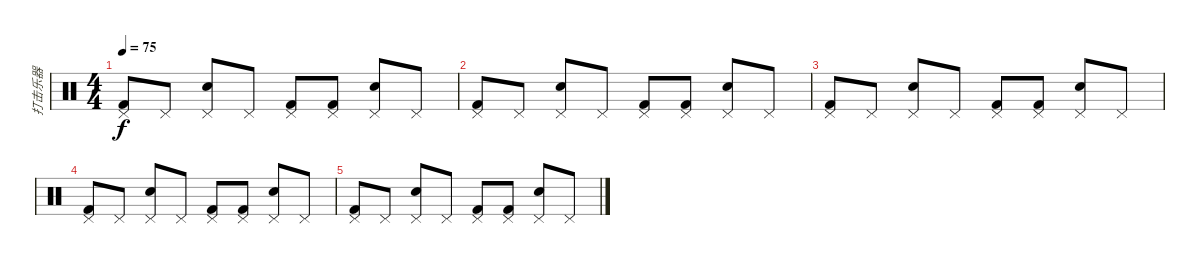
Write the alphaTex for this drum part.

\track ("打击乐器" "打击乐器") {instrument percussion}
\staff {score}
\articulation defaults
\ts (4 4)
\tempo 75
\clef neutral
\ks c
("Kick (hit) 2" "Pedal Hi-Hat (hit)").8{dy f} "Pedal Hi-Hat (hit)".8 ("Electric Snare (hit)" "Pedal Hi-Hat (hit)").8 "Pedal Hi-Hat (hit)".8 ("Kick (hit) 2" "Pedal Hi-Hat (hit)").8 ("Kick (hit) 2" "Pedal Hi-Hat (hit)").8 ("Electric Snare (hit)" "Pedal Hi-Hat (hit)").8 "Pedal Hi-Hat (hit)".8 |
("Kick (hit) 2" "Pedal Hi-Hat (hit)").8 "Pedal Hi-Hat (hit)".8 ("Electric Snare (hit)" "Pedal Hi-Hat (hit)").8 "Pedal Hi-Hat (hit)".8 ("Kick (hit) 2" "Pedal Hi-Hat (hit)").8 ("Kick (hit) 2" "Pedal Hi-Hat (hit)").8 ("Electric Snare (hit)" "Pedal Hi-Hat (hit)").8 "Pedal Hi-Hat (hit)".8 |
("Kick (hit) 2" "Pedal Hi-Hat (hit)").8 "Pedal Hi-Hat (hit)".8 ("Electric Snare (hit)" "Pedal Hi-Hat (hit)").8 "Pedal Hi-Hat (hit)".8 ("Kick (hit) 2" "Pedal Hi-Hat (hit)").8 ("Kick (hit) 2" "Pedal Hi-Hat (hit)").8 ("Electric Snare (hit)" "Pedal Hi-Hat (hit)").8 "Pedal Hi-Hat (hit)".8 |
("Kick (hit) 2" "Pedal Hi-Hat (hit)").8 "Pedal Hi-Hat (hit)".8 ("Electric Snare (hit)" "Pedal Hi-Hat (hit)").8 "Pedal Hi-Hat (hit)".8 ("Kick (hit) 2" "Pedal Hi-Hat (hit)").8 ("Kick (hit) 2" "Pedal Hi-Hat (hit)").8 ("Electric Snare (hit)" "Pedal Hi-Hat (hit)").8 "Pedal Hi-Hat (hit)".8 |
("Kick (hit) 2" "Pedal Hi-Hat (hit)").8 "Pedal Hi-Hat (hit)".8 ("Electric Snare (hit)" "Pedal Hi-Hat (hit)").8 "Pedal Hi-Hat (hit)".8 ("Kick (hit) 2" "Pedal Hi-Hat (hit)").8 ("Kick (hit) 2" "Pedal Hi-Hat (hit)").8 ("Electric Snare (hit)" "Pedal Hi-Hat (hit)").8 "Pedal Hi-Hat (hit)".8
